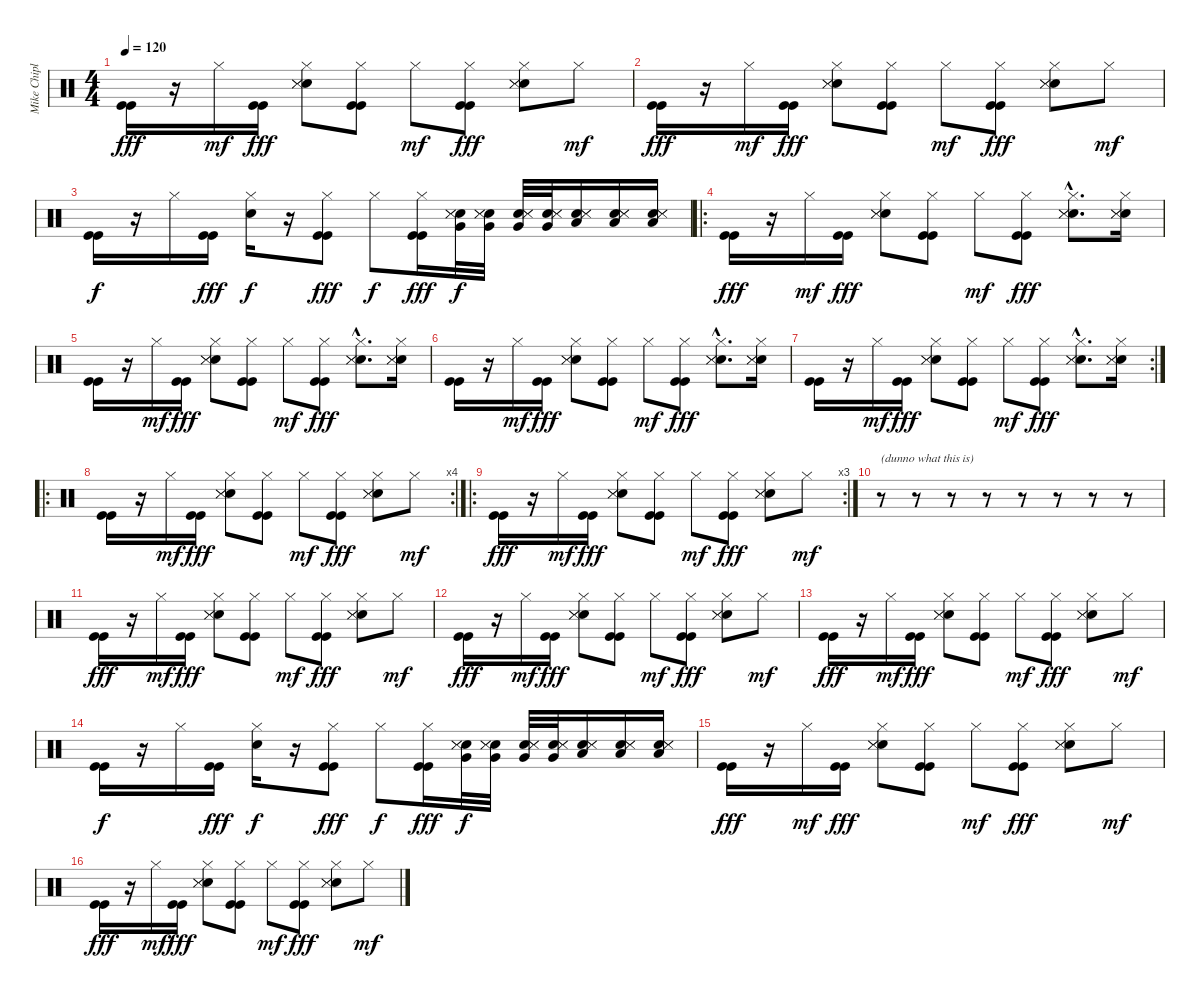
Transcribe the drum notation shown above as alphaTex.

\track ("Mike Chiplin" "Mike Chipl") {instrument percussion}
\staff {score}
\articulation defaults
\ts (4 4)
\tempo 120
\clef neutral
\ks c
("Kick (hit)" "Kick (hit)").16{dy fff} r.16 "Hi-Hat (closed)".16{dy mf} ("Kick (hit)" "Kick (hit)").16{dy fff} ("Hi-Hat (closed)" "Electric Snare (hit)" "Snare (side stick) 3" "Snare (side stick) 3").8 ("Hi-Hat (closed)" "Kick (hit)" "Kick (hit)").8 "Hi-Hat (closed)".8{dy mf} ("Hi-Hat (closed)" "Kick (hit)" "Kick (hit)").8{dy fff} ("Hi-Hat (closed)" "Electric Snare (hit)" "Snare (side stick) 3" "Snare (side stick) 3").8 "Hi-Hat (closed)".8{dy mf} |
("Kick (hit)" "Kick (hit)").16{dy fff} r.16 "Hi-Hat (closed)".16{dy mf} ("Kick (hit)" "Kick (hit)").16{dy fff} ("Hi-Hat (closed)" "Electric Snare (hit)" "Snare (side stick) 3" "Snare (side stick) 3").8 ("Hi-Hat (closed)" "Kick (hit)" "Kick (hit)").8 "Hi-Hat (closed)".8{dy mf} ("Hi-Hat (closed)" "Kick (hit)" "Kick (hit)").8{dy fff} ("Hi-Hat (closed)" "Electric Snare (hit)" "Snare (side stick) 3" "Snare (side stick) 3").8 "Hi-Hat (closed)".8{dy mf} |
("Kick (hit)" "Kick (hit)").16{dy f} r.16 "Hi-Hat (closed)".16 ("Kick (hit)" "Kick (hit)").16{dy fff} ("Hi-Hat (closed)" "Electric Snare (hit)").16{dy f} r.16 ("Hi-Hat (closed)" "Kick (hit)" "Kick (hit)").8{dy fff} "Hi-Hat (closed)".8{dy f} ("Hi-Hat (closed)" "Kick (hit)" "Kick (hit)").16{dy fff} ("Very Low Tom (hit)" "Electric Snare (hit)" "Snare (side stick) 3" "Snare (side stick) 3").32{dy f} ("Very Low Tom (hit)" "Electric Snare (hit)" "Snare (side stick) 3" "Snare (side stick) 3").32 ("Very Low Tom (hit)" "Electric Snare (hit)" "Snare (side stick) 3" "Snare (side stick) 3").32 ("Very Low Tom (hit)" "Electric Snare (hit)" "Snare (side stick) 3" "Snare (side stick) 3").32 ("Low Tom (hit)" "Electric Snare (hit)" "Snare (side stick) 3" "Snare (side stick) 3").16 ("Low Tom (hit)" "Electric Snare (hit)" "Snare (side stick) 3" "Snare (side stick) 3").16 ("Low Tom (hit)" "Electric Snare (hit)" "Snare (side stick) 3" "Snare (side stick) 3").16 |
\ro
("Kick (hit)" "Kick (hit)").16{dy fff} r.16 "Hi-Hat (closed)".16{dy mf} ("Kick (hit)" "Kick (hit)").16{dy fff} ("Hi-Hat (closed)" "Electric Snare (hit)" "Snare (side stick) 3" "Snare (side stick) 3").8 ("Hi-Hat (closed)" "Kick (hit)" "Kick (hit)").8 "Hi-Hat (closed)".8{dy mf} ("Hi-Hat (closed)" "Kick (hit)" "Kick (hit)").8{dy fff} ("Hi-Hat (closed)"{hac} "Electric Snare (hit)"{hac} "Snare (side stick) 3"{hac} "Snare (side stick) 3"{hac}).8{d} ("Hi-Hat (closed)" "Electric Snare (hit)" "Snare (side stick) 3" "Snare (side stick) 3").16 |
("Kick (hit)" "Kick (hit)").16 r.16 "Hi-Hat (closed)".16{dy mf} ("Kick (hit)" "Kick (hit)").16{dy fff} ("Hi-Hat (closed)" "Electric Snare (hit)" "Snare (side stick) 3" "Snare (side stick) 3").8 ("Hi-Hat (closed)" "Kick (hit)" "Kick (hit)").8 "Hi-Hat (closed)".8{dy mf} ("Hi-Hat (closed)" "Kick (hit)" "Kick (hit)").8{dy fff} ("Hi-Hat (closed)"{hac} "Electric Snare (hit)"{hac} "Snare (side stick) 3"{hac} "Snare (side stick) 3"{hac}).8{d} ("Hi-Hat (closed)" "Electric Snare (hit)" "Snare (side stick) 3" "Snare (side stick) 3").16 |
("Kick (hit)" "Kick (hit)").16 r.16 "Hi-Hat (closed)".16{dy mf} ("Kick (hit)" "Kick (hit)").16{dy fff} ("Hi-Hat (closed)" "Electric Snare (hit)" "Snare (side stick) 3" "Snare (side stick) 3").8 ("Hi-Hat (closed)" "Kick (hit)" "Kick (hit)").8 "Hi-Hat (closed)".8{dy mf} ("Hi-Hat (closed)" "Kick (hit)" "Kick (hit)").8{dy fff} ("Hi-Hat (closed)"{hac} "Electric Snare (hit)"{hac} "Snare (side stick) 3"{hac} "Snare (side stick) 3"{hac}).8{d} ("Hi-Hat (closed)" "Electric Snare (hit)" "Snare (side stick) 3" "Snare (side stick) 3").16 |
\rc 2
("Kick (hit)" "Kick (hit)").16 r.16 "Hi-Hat (closed)".16{dy mf} ("Kick (hit)" "Kick (hit)").16{dy fff} ("Hi-Hat (closed)" "Electric Snare (hit)" "Snare (side stick) 3" "Snare (side stick) 3").8 ("Hi-Hat (closed)" "Kick (hit)" "Kick (hit)").8 "Hi-Hat (closed)".8{dy mf} ("Hi-Hat (closed)" "Kick (hit)" "Kick (hit)").8{dy fff} ("Hi-Hat (closed)"{hac} "Electric Snare (hit)"{hac} "Snare (side stick) 3"{hac} "Snare (side stick) 3"{hac}).8{d} ("Hi-Hat (closed)" "Electric Snare (hit)" "Snare (side stick) 3" "Snare (side stick) 3").16 |
\ro
\rc 4
("Kick (hit)" "Kick (hit)").16 r.16 "Hi-Hat (closed)".16{dy mf} ("Kick (hit)" "Kick (hit)").16{dy fff} ("Hi-Hat (closed)" "Electric Snare (hit)" "Snare (side stick) 3" "Snare (side stick) 3").8 ("Hi-Hat (closed)" "Kick (hit)" "Kick (hit)").8 "Hi-Hat (closed)".8{dy mf} ("Hi-Hat (closed)" "Kick (hit)" "Kick (hit)").8{dy fff} ("Hi-Hat (closed)" "Electric Snare (hit)" "Snare (side stick) 3" "Snare (side stick) 3").8 "Hi-Hat (closed)".8{dy mf} |
\ro
\rc 3
("Kick (hit)" "Kick (hit)").16{dy fff} r.16 "Hi-Hat (closed)".16{dy mf} ("Kick (hit)" "Kick (hit)").16{dy fff} ("Hi-Hat (closed)" "Electric Snare (hit)" "Snare (side stick) 3" "Snare (side stick) 3").8 ("Hi-Hat (closed)" "Kick (hit)" "Kick (hit)").8 "Hi-Hat (closed)".8{dy mf} ("Hi-Hat (closed)" "Kick (hit)" "Kick (hit)").8{dy fff} ("Hi-Hat (closed)" "Electric Snare (hit)" "Snare (side stick) 3" "Snare (side stick) 3").8 "Hi-Hat (closed)".8{dy mf} |
r.8{txt "(dunno what this is)"} r.8 r.8 r.8 r.8 r.8 r.8 r.8 |
("Kick (hit)" "Kick (hit)").16{dy fff} r.16 "Hi-Hat (closed)".16{dy mf} ("Kick (hit)" "Kick (hit)").16{dy fff} ("Hi-Hat (closed)" "Electric Snare (hit)" "Snare (side stick) 3" "Snare (side stick) 3").8 ("Hi-Hat (closed)" "Kick (hit)" "Kick (hit)").8 "Hi-Hat (closed)".8{dy mf} ("Hi-Hat (closed)" "Kick (hit)" "Kick (hit)").8{dy fff} ("Hi-Hat (closed)" "Electric Snare (hit)" "Snare (side stick) 3" "Snare (side stick) 3").8 "Hi-Hat (closed)".8{dy mf} |
("Kick (hit)" "Kick (hit)").16{dy fff} r.16 "Hi-Hat (closed)".16{dy mf} ("Kick (hit)" "Kick (hit)").16{dy fff} ("Hi-Hat (closed)" "Electric Snare (hit)" "Snare (side stick) 3" "Snare (side stick) 3").8 ("Hi-Hat (closed)" "Kick (hit)" "Kick (hit)").8 "Hi-Hat (closed)".8{dy mf} ("Hi-Hat (closed)" "Kick (hit)" "Kick (hit)").8{dy fff} ("Hi-Hat (closed)" "Electric Snare (hit)" "Snare (side stick) 3" "Snare (side stick) 3").8 "Hi-Hat (closed)".8{dy mf} |
("Kick (hit)" "Kick (hit)").16{dy fff} r.16 "Hi-Hat (closed)".16{dy mf} ("Kick (hit)" "Kick (hit)").16{dy fff} ("Hi-Hat (closed)" "Electric Snare (hit)" "Snare (side stick) 3" "Snare (side stick) 3").8 ("Hi-Hat (closed)" "Kick (hit)" "Kick (hit)").8 "Hi-Hat (closed)".8{dy mf} ("Hi-Hat (closed)" "Kick (hit)" "Kick (hit)").8{dy fff} ("Hi-Hat (closed)" "Electric Snare (hit)" "Snare (side stick) 3" "Snare (side stick) 3").8 "Hi-Hat (closed)".8{dy mf} |
("Kick (hit)" "Kick (hit)").16{dy f} r.16 "Hi-Hat (closed)".16 ("Kick (hit)" "Kick (hit)").16{dy fff} ("Hi-Hat (closed)" "Electric Snare (hit)").16{dy f} r.16 ("Hi-Hat (closed)" "Kick (hit)" "Kick (hit)").8{dy fff} "Hi-Hat (closed)".8{dy f} ("Hi-Hat (closed)" "Kick (hit)" "Kick (hit)").16{dy fff} ("Very Low Tom (hit)" "Electric Snare (hit)" "Snare (side stick) 3" "Snare (side stick) 3").32{dy f} ("Very Low Tom (hit)" "Electric Snare (hit)" "Snare (side stick) 3" "Snare (side stick) 3").32 ("Very Low Tom (hit)" "Electric Snare (hit)" "Snare (side stick) 3" "Snare (side stick) 3").32 ("Very Low Tom (hit)" "Electric Snare (hit)" "Snare (side stick) 3" "Snare (side stick) 3").32 ("Low Tom (hit)" "Electric Snare (hit)" "Snare (side stick) 3" "Snare (side stick) 3").16 ("Low Tom (hit)" "Electric Snare (hit)" "Snare (side stick) 3" "Snare (side stick) 3").16 ("Low Tom (hit)" "Electric Snare (hit)" "Snare (side stick) 3" "Snare (side stick) 3").16 |
("Kick (hit)" "Kick (hit)").16{dy fff} r.16 "Hi-Hat (closed)".16{dy mf} ("Kick (hit)" "Kick (hit)").16{dy fff} ("Hi-Hat (closed)" "Electric Snare (hit)" "Snare (side stick) 3" "Snare (side stick) 3").8 ("Hi-Hat (closed)" "Kick (hit)" "Kick (hit)").8 "Hi-Hat (closed)".8{dy mf} ("Hi-Hat (closed)" "Kick (hit)" "Kick (hit)").8{dy fff} ("Hi-Hat (closed)" "Electric Snare (hit)" "Snare (side stick) 3" "Snare (side stick) 3").8 "Hi-Hat (closed)".8{dy mf} |
("Kick (hit)" "Kick (hit)").16{dy fff} r.16 "Hi-Hat (closed)".16{dy mf} ("Kick (hit)" "Kick (hit)").16{dy fff} ("Hi-Hat (closed)" "Electric Snare (hit)" "Snare (side stick) 3" "Snare (side stick) 3").8 ("Hi-Hat (closed)" "Kick (hit)" "Kick (hit)").8 "Hi-Hat (closed)".8{dy mf} ("Hi-Hat (closed)" "Kick (hit)" "Kick (hit)").8{dy fff} ("Hi-Hat (closed)" "Electric Snare (hit)" "Snare (side stick) 3" "Snare (side stick) 3").8 "Hi-Hat (closed)".8{dy mf}
